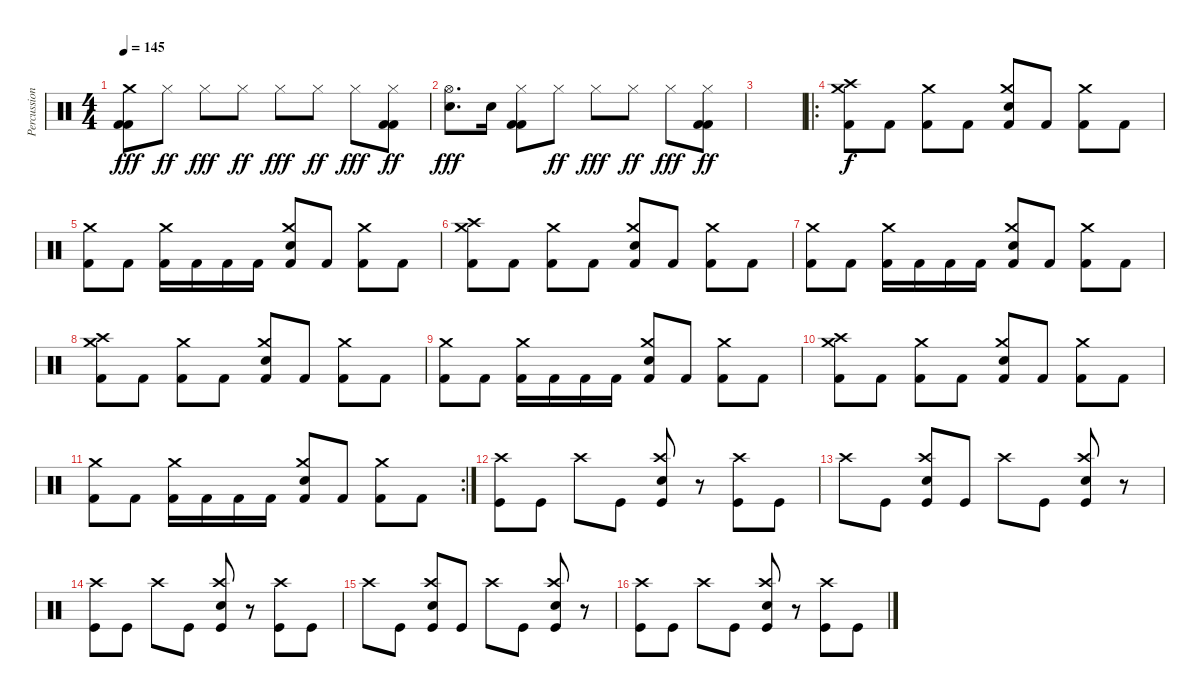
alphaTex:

\track ("Percussion" "Percussion") {instrument percussion}
\staff {score}
\articulation defaults
\ts (4 4)
\tempo 145
\clef neutral
\ks c
("Kick (hit) 2" "Kick (hit) 2" "Crash medium (hit)").8{dy fff} "Hi-Hat (closed)".8{dy ff} "Hi-Hat (closed)".8{dy fff} "Hi-Hat (closed)".8{dy ff} "Hi-Hat (closed)".8{dy fff} "Hi-Hat (closed)".8{dy ff} "Hi-Hat (closed)".8{dy fff} ("Kick (hit) 2" "Kick (hit) 2" "Hi-Hat (closed)").8{dy ff} |
("Electric Snare (hit)" "Hi-Hat (open)").8{d dy fff} "Electric Snare (hit)".16 ("Kick (hit) 2" "Kick (hit) 2" "Hi-Hat (closed)").8 "Hi-Hat (closed)".8{dy ff} "Hi-Hat (closed)".8{dy fff} "Hi-Hat (closed)".8{dy ff} "Hi-Hat (closed)".8{dy fff} ("Kick (hit) 2" "Kick (hit) 2" "Hi-Hat (closed)").8{dy ff} |
|
\ro
("Crash high (hit)" "Crash medium (hit)" "Kick (hit) 2").8{dy f} "Kick (hit) 2".8 ("Crash medium (hit)" "Kick (hit) 2").8 "Kick (hit) 2".8 ("Crash medium (hit)" "Electric Snare (hit)" "Kick (hit) 2").8 "Kick (hit) 2".8 ("Crash medium (hit)" "Kick (hit) 2").8 "Kick (hit) 2".8 |
("Crash medium (hit)" "Kick (hit) 2").8 "Kick (hit) 2".8 ("Crash medium (hit)" "Kick (hit) 2").16 "Kick (hit) 2".16 "Kick (hit) 2".16 "Kick (hit) 2".16 ("Crash medium (hit)" "Electric Snare (hit)" "Kick (hit) 2").8 "Kick (hit) 2".8 ("Crash medium (hit)" "Kick (hit) 2").8 "Kick (hit) 2".8 |
("Crash high (hit)" "Crash medium (hit)" "Kick (hit) 2").8 "Kick (hit) 2".8 ("Crash medium (hit)" "Kick (hit) 2").8 "Kick (hit) 2".8 ("Crash medium (hit)" "Electric Snare (hit)" "Kick (hit) 2").8 "Kick (hit) 2".8 ("Crash medium (hit)" "Kick (hit) 2").8 "Kick (hit) 2".8 |
("Crash medium (hit)" "Kick (hit) 2").8 "Kick (hit) 2".8 ("Crash medium (hit)" "Kick (hit) 2").16 "Kick (hit) 2".16 "Kick (hit) 2".16 "Kick (hit) 2".16 ("Crash medium (hit)" "Electric Snare (hit)" "Kick (hit) 2").8 "Kick (hit) 2".8 ("Crash medium (hit)" "Kick (hit) 2").8 "Kick (hit) 2".8 |
("Crash high (hit)" "Crash medium (hit)" "Kick (hit) 2").8 "Kick (hit) 2".8 ("Crash medium (hit)" "Kick (hit) 2").8 "Kick (hit) 2".8 ("Crash medium (hit)" "Electric Snare (hit)" "Kick (hit) 2").8 "Kick (hit) 2".8 ("Crash medium (hit)" "Kick (hit) 2").8 "Kick (hit) 2".8 |
("Crash medium (hit)" "Kick (hit) 2").8 "Kick (hit) 2".8 ("Crash medium (hit)" "Kick (hit) 2").16 "Kick (hit) 2".16 "Kick (hit) 2".16 "Kick (hit) 2".16 ("Crash medium (hit)" "Electric Snare (hit)" "Kick (hit) 2").8 "Kick (hit) 2".8 ("Crash medium (hit)" "Kick (hit) 2").8 "Kick (hit) 2".8 |
("Crash high (hit)" "Crash medium (hit)" "Kick (hit) 2").8 "Kick (hit) 2".8 ("Crash medium (hit)" "Kick (hit) 2").8 "Kick (hit) 2".8 ("Crash medium (hit)" "Electric Snare (hit)" "Kick (hit) 2").8 "Kick (hit) 2".8 ("Crash medium (hit)" "Kick (hit) 2").8 "Kick (hit) 2".8 |
\rc 2
("Crash medium (hit)" "Kick (hit) 2").8 "Kick (hit) 2".8 ("Crash medium (hit)" "Kick (hit) 2").16 "Kick (hit) 2".16 "Kick (hit) 2".16 "Kick (hit) 2".16 ("Crash medium (hit)" "Electric Snare (hit)" "Kick (hit) 2").8 "Kick (hit) 2".8 ("Crash medium (hit)" "Kick (hit) 2").8 "Kick (hit) 2".8 |
("Crash high (hit)" "Kick (hit)").8 "Kick (hit)".8 "Crash high (hit)".8 "Kick (hit)".8 ("Crash high (hit)" "Kick (hit)" "Electric Snare (hit)").8 r.8 ("Crash high (hit)" "Kick (hit)").8 "Kick (hit)".8 |
"Crash high (hit)".8 "Kick (hit)".8 ("Crash high (hit)" "Kick (hit)" "Electric Snare (hit)").8 "Kick (hit)".8 "Crash high (hit)".8 "Kick (hit)".8 ("Crash high (hit)" "Kick (hit)" "Electric Snare (hit)").8 r.8 |
("Crash high (hit)" "Kick (hit)").8 "Kick (hit)".8 "Crash high (hit)".8 "Kick (hit)".8 ("Crash high (hit)" "Kick (hit)" "Electric Snare (hit)").8 r.8 ("Crash high (hit)" "Kick (hit)").8 "Kick (hit)".8 |
"Crash high (hit)".8 "Kick (hit)".8 ("Crash high (hit)" "Kick (hit)" "Electric Snare (hit)").8 "Kick (hit)".8 "Crash high (hit)".8 "Kick (hit)".8 ("Crash high (hit)" "Kick (hit)" "Electric Snare (hit)").8 r.8 |
("Crash high (hit)" "Kick (hit)").8 "Kick (hit)".8 "Crash high (hit)".8 "Kick (hit)".8 ("Crash high (hit)" "Kick (hit)" "Electric Snare (hit)").8 r.8 ("Crash high (hit)" "Kick (hit)").8 "Kick (hit)".8
